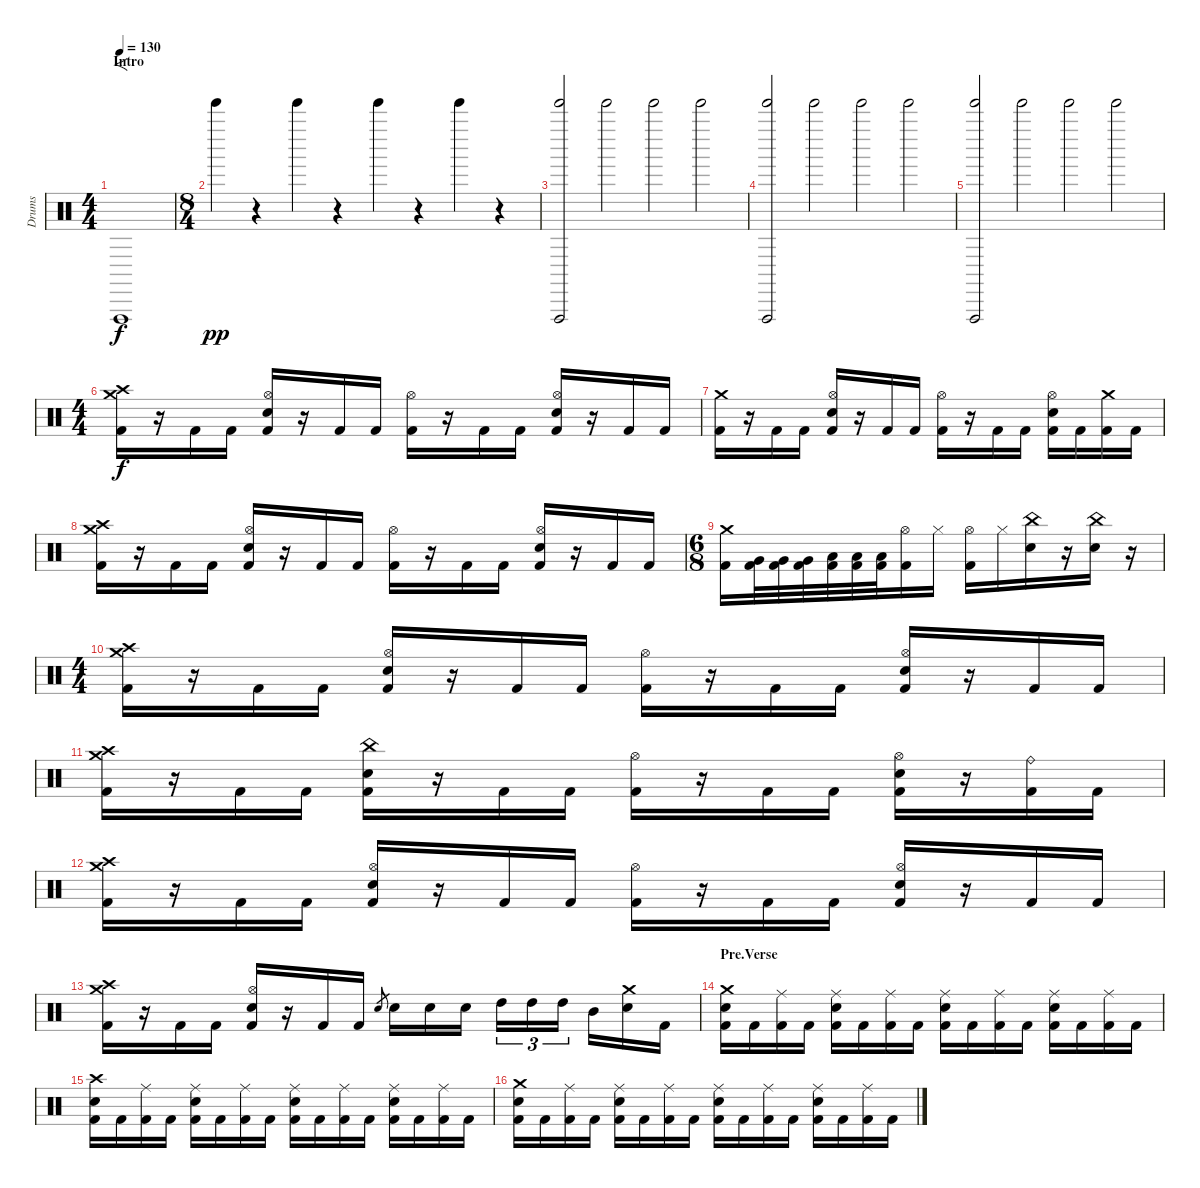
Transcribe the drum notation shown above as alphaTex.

\track ("Drums" "Drums") {instrument percussion}
\staff {score}
\articulation defaults
\ts (4 4)
\section ("" "Intro")
\tempo 130
\clef neutral
\ks c "Vibraslap (hit)".1{f dy f}
|
\ts (8 4)
"Tinkle Bell (hit)".4{dy pp} r.4 "Tinkle Bell (hit)".4 r.4 "Tinkle Bell (hit)".4 r.4 "Tinkle Bell (hit)".4 r.4 |
("Vibraslap (hit)" "Tinkle Bell (hit)").2 "Tinkle Bell (hit)".2 "Tinkle Bell (hit)".2 "Tinkle Bell (hit)".2 |
("Vibraslap (hit)" "Tinkle Bell (hit)").2 "Tinkle Bell (hit)".2 "Tinkle Bell (hit)".2 "Tinkle Bell (hit)".2 |
("Vibraslap (hit)" "Tinkle Bell (hit)").2 "Tinkle Bell (hit)".2 "Tinkle Bell (hit)".2 "Tinkle Bell (hit)".2 |
\ts (4 4)
("Crash medium (hit)" "Crash high (hit)" "Kick (hit) 2").16{dy f} r.16 "Kick (hit) 2".16 "Kick (hit) 2".16 ("Hi-Hat (open)" "Electric Snare (hit)" "Kick (hit) 2").16 r.16 "Kick (hit) 2".16 "Kick (hit) 2".16 ("Hi-Hat (open)" "Kick (hit) 2").16 r.16 "Kick (hit) 2".16 "Kick (hit) 2".16 ("Hi-Hat (open)" "Electric Snare (hit)" "Kick (hit) 2").16 r.16 "Kick (hit) 2".16 "Kick (hit) 2".16 |
("Crash medium (hit)" "Kick (hit) 2").16 r.16 "Kick (hit) 2".16 "Kick (hit) 2".16 ("Hi-Hat (open)" "Electric Snare (hit)" "Kick (hit) 2").16 r.16 "Kick (hit) 2".16 "Kick (hit) 2".16 ("Hi-Hat (open)" "Kick (hit) 2").16 r.16 "Kick (hit) 2".16 "Kick (hit) 2".16 ("Hi-Hat (open)" "Electric Snare (hit)" "Kick (hit) 2").16 "Kick (hit) 2".16 ("Crash medium (hit)" "Kick (hit) 2").16 "Kick (hit) 2".16 |
("Crash medium (hit)" "Crash high (hit)" "Kick (hit) 2").16 r.16 "Kick (hit) 2".16 "Kick (hit) 2".16 ("Hi-Hat (open)" "Electric Snare (hit)" "Kick (hit) 2").16 r.16 "Kick (hit) 2".16 "Kick (hit) 2".16 ("Hi-Hat (open)" "Kick (hit) 2").16 r.16 "Kick (hit) 2".16 "Kick (hit) 2".16 ("Hi-Hat (open)" "Electric Snare (hit)" "Kick (hit) 2").16 r.16 "Kick (hit) 2".16 "Kick (hit) 2".16 |
\ts (6 8)
("Crash medium (hit)" "Kick (hit) 2").16 ("Very Low Tom (hit)" "Kick (hit) 2").32 ("Very Low Tom (hit)" "Kick (hit) 2").32 ("Very Low Tom (hit)" "Kick (hit) 2").32 ("Low Floor Tom (hit)" "Kick (hit) 2").32 ("Low Floor Tom (hit)" "Kick (hit) 2").32 ("Low Floor Tom (hit)" "Kick (hit) 2").32 ("Hi-Hat (open)" "Kick (hit) 2").16 "Hi-Hat (closed)".16 ("Hi-Hat (open)" "Kick (hit) 2").16 "Hi-Hat (closed)".16 ("China (hit)" "Electric Snare (hit)").16 r.16 ("China (hit)" "Electric Snare (hit)").16 r.16 |
\ts (4 4)
("Crash medium (hit)" "Crash high (hit)" "Kick (hit) 2").16 r.16 "Kick (hit) 2".16 "Kick (hit) 2".16 ("Hi-Hat (open)" "Electric Snare (hit)" "Kick (hit) 2").16 r.16 "Kick (hit) 2".16 "Kick (hit) 2".16 ("Hi-Hat (open)" "Kick (hit) 2").16 r.16 "Kick (hit) 2".16 "Kick (hit) 2".16 ("Hi-Hat (open)" "Electric Snare (hit)" "Kick (hit) 2").16 r.16 "Kick (hit) 2".16 "Kick (hit) 2".16 |
("Crash medium (hit)" "Crash high (hit)" "Kick (hit) 2").16 r.16 "Kick (hit) 2".16 "Kick (hit) 2".16 ("China (hit)" "Electric Snare (hit)" "Kick (hit) 2").16 r.16 "Kick (hit) 2".16 "Kick (hit) 2".16 ("Hi-Hat (open)" "Kick (hit) 2").16 r.16 "Kick (hit) 2".16 "Kick (hit) 2".16 ("Hi-Hat (open)" "Electric Snare (hit)" "Kick (hit) 2").16 r.16 ("Ride (bell)" "Kick (hit) 2").16 "Kick (hit) 2".16 |
("Crash medium (hit)" "Crash high (hit)" "Kick (hit) 2").16 r.16 "Kick (hit) 2".16 "Kick (hit) 2".16 ("Hi-Hat (open)" "Electric Snare (hit)" "Kick (hit) 2").16 r.16 "Kick (hit) 2".16 "Kick (hit) 2".16 ("Hi-Hat (open)" "Kick (hit) 2").16 r.16 "Kick (hit) 2".16 "Kick (hit) 2".16 ("Hi-Hat (open)" "Electric Snare (hit)" "Kick (hit) 2").16 r.16 "Kick (hit) 2".16 "Kick (hit) 2".16 |
("Crash medium (hit)" "Crash high (hit)" "Kick (hit) 2").16 r.16 "Kick (hit) 2".16 "Kick (hit) 2".16 ("Hi-Hat (open)" "Electric Snare (hit)" "Kick (hit) 2").16 r.16 "Kick (hit) 2".16 "Kick (hit) 2".16 "Electric Snare (hit)".8{gr} "Electric Snare (hit)".16 "Electric Snare (hit)".16 "Electric Snare (hit)".16 "High Tom (hit)".16{tu (3 2)} "High Tom (hit)".16{tu (3 2)} "High Tom (hit)".16{tu (3 2)} "Mid Tom (hit)".16 ("Crash medium (hit)" "Electric Snare (hit)").16 "Kick (hit) 2".16 |
\section ("" "Pre.Verse")
("Crash medium (hit)" "Electric Snare (hit)" "Kick (hit) 2").16 "Kick (hit) 2".16 ("Ride (middle)" "Kick (hit) 2").16 "Kick (hit) 2".16 ("Ride (middle)" "Electric Snare (hit)" "Kick (hit) 2").16 "Kick (hit) 2".16 ("Ride (middle)" "Kick (hit) 2").16 "Kick (hit) 2".16 ("Ride (middle)" "Electric Snare (hit)" "Kick (hit) 2").16 "Kick (hit) 2".16 ("Ride (middle)" "Kick (hit) 2").16 "Kick (hit) 2".16 ("Ride (middle)" "Electric Snare (hit)" "Kick (hit) 2").16 "Kick (hit) 2".16 ("Ride (middle)" "Kick (hit) 2").16 "Kick (hit) 2".16 |
("Crash high (hit)" "Electric Snare (hit)" "Kick (hit) 2").16 "Kick (hit) 2".16 ("Ride (middle)" "Kick (hit) 2").16 "Kick (hit) 2".16 ("Ride (middle)" "Electric Snare (hit)" "Kick (hit) 2").16 "Kick (hit) 2".16 ("Ride (middle)" "Kick (hit) 2").16 "Kick (hit) 2".16 ("Ride (middle)" "Electric Snare (hit)" "Kick (hit) 2").16 "Kick (hit) 2".16 ("Ride (middle)" "Kick (hit) 2").16 "Kick (hit) 2".16 ("Ride (middle)" "Electric Snare (hit)" "Kick (hit) 2").16 "Kick (hit) 2".16 ("Ride (middle)" "Kick (hit) 2").16 "Kick (hit) 2".16 |
("Crash medium (hit)" "Electric Snare (hit)" "Kick (hit) 2").16 "Kick (hit) 2".16 ("Ride (middle)" "Kick (hit) 2").16 "Kick (hit) 2".16 ("Ride (middle)" "Electric Snare (hit)" "Kick (hit) 2").16 "Kick (hit) 2".16 ("Ride (middle)" "Kick (hit) 2").16 "Kick (hit) 2".16 ("Ride (middle)" "Electric Snare (hit)" "Kick (hit) 2").16 "Kick (hit) 2".16 ("Ride (middle)" "Kick (hit) 2").16 "Kick (hit) 2".16 ("Ride (middle)" "Electric Snare (hit)" "Kick (hit) 2").16 "Kick (hit) 2".16 ("Ride (middle)" "Kick (hit) 2").16 "Kick (hit) 2".16
